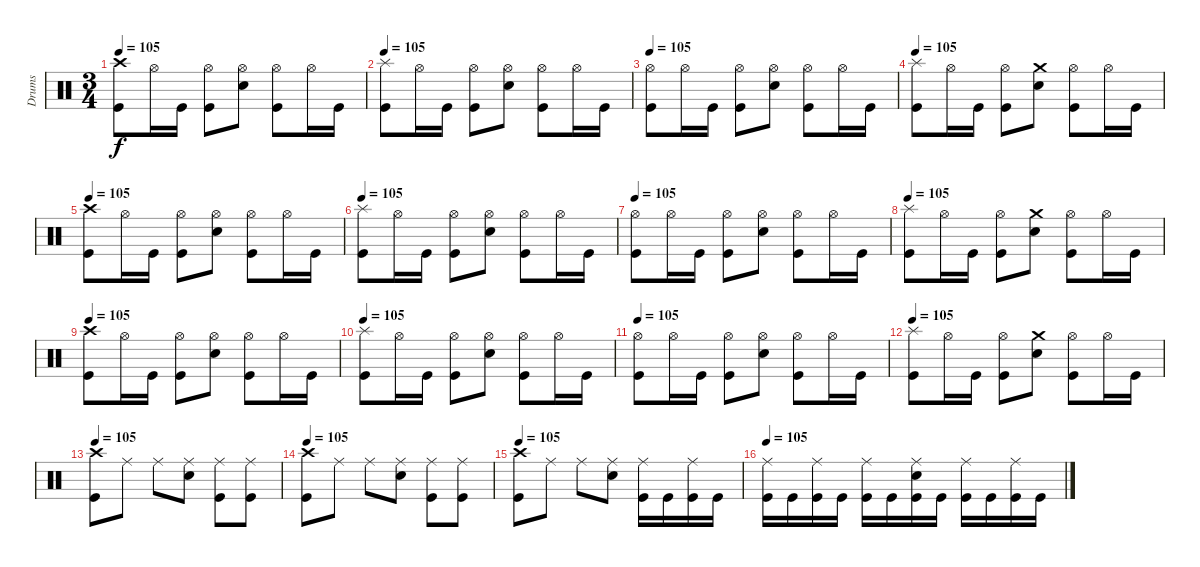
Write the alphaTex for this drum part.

\track ("Drums" "Drums") {instrument percussion}
\staff {score}
\articulation defaults
\ts (3 4)
\tempo 105
\clef neutral
\ks c
("Crash high (hit)" "Kick (hit)").8{dy f} "Hi-Hat (open)".16 "Kick (hit)".16 ("Hi-Hat (open)" "Kick (hit)").8 ("Hi-Hat (open)" "Electric Snare (hit)").8 ("Hi-Hat (open)" "Kick (hit)").8 "Hi-Hat (open)".16 "Kick (hit)".16 |
\tempo 105
("Splash (hit)" "Kick (hit)").8 "Hi-Hat (open)".16 "Kick (hit)".16 ("Hi-Hat (open)" "Kick (hit)").8 ("Hi-Hat (open)" "Electric Snare (hit)").8 ("Hi-Hat (open)" "Kick (hit)").8 "Hi-Hat (open)".16 "Kick (hit)".16 |
\tempo 105
("Hi-Hat (open)" "Kick (hit)").8 "Hi-Hat (open)".16 "Kick (hit)".16 ("Hi-Hat (open)" "Kick (hit)").8 ("Hi-Hat (open)" "Electric Snare (hit)").8 ("Hi-Hat (open)" "Kick (hit)").8 "Hi-Hat (open)".16 "Kick (hit)".16 |
\tempo 105
("Splash (hit)" "Kick (hit)").8 "Hi-Hat (open)".16 "Kick (hit)".16 ("Hi-Hat (open)" "Kick (hit)").8 ("Crash medium (hit)" "Electric Snare (hit)").8 ("Hi-Hat (open)" "Kick (hit)").8 "Hi-Hat (open)".16 "Kick (hit)".16 |
\tempo 105
("Crash high (hit)" "Kick (hit)").8 "Hi-Hat (open)".16 "Kick (hit)".16 ("Hi-Hat (open)" "Kick (hit)").8 ("Hi-Hat (open)" "Electric Snare (hit)").8 ("Hi-Hat (open)" "Kick (hit)").8 "Hi-Hat (open)".16 "Kick (hit)".16 |
\tempo 105
("Splash (hit)" "Kick (hit)").8 "Hi-Hat (open)".16 "Kick (hit)".16 ("Hi-Hat (open)" "Kick (hit)").8 ("Hi-Hat (open)" "Electric Snare (hit)").8 ("Hi-Hat (open)" "Kick (hit)").8 "Hi-Hat (open)".16 "Kick (hit)".16 |
\tempo 105
("Hi-Hat (open)" "Kick (hit)").8 "Hi-Hat (open)".16 "Kick (hit)".16 ("Hi-Hat (open)" "Kick (hit)").8 ("Hi-Hat (open)" "Electric Snare (hit)").8 ("Hi-Hat (open)" "Kick (hit)").8 "Hi-Hat (open)".16 "Kick (hit)".16 |
\tempo 105
("Splash (hit)" "Kick (hit)").8 "Hi-Hat (open)".16 "Kick (hit)".16 ("Hi-Hat (open)" "Kick (hit)").8 ("Crash medium (hit)" "Electric Snare (hit)").8 ("Hi-Hat (open)" "Kick (hit)").8 "Hi-Hat (open)".16 "Kick (hit)".16 |
\tempo 105
("Crash high (hit)" "Kick (hit)").8 "Hi-Hat (open)".16 "Kick (hit)".16 ("Hi-Hat (open)" "Kick (hit)").8 ("Hi-Hat (open)" "Electric Snare (hit)").8 ("Hi-Hat (open)" "Kick (hit)").8 "Hi-Hat (open)".16 "Kick (hit)".16 |
\tempo 105
("Splash (hit)" "Kick (hit)").8 "Hi-Hat (open)".16 "Kick (hit)".16 ("Hi-Hat (open)" "Kick (hit)").8 ("Hi-Hat (open)" "Electric Snare (hit)").8 ("Hi-Hat (open)" "Kick (hit)").8 "Hi-Hat (open)".16 "Kick (hit)".16 |
\tempo 105
("Hi-Hat (open)" "Kick (hit)").8 "Hi-Hat (open)".16 "Kick (hit)".16 ("Hi-Hat (open)" "Kick (hit)").8 ("Hi-Hat (open)" "Electric Snare (hit)").8 ("Hi-Hat (open)" "Kick (hit)").8 "Hi-Hat (open)".16 "Kick (hit)".16 |
\tempo 105
("Splash (hit)" "Kick (hit)").8 "Hi-Hat (open)".16 "Kick (hit)".16 ("Hi-Hat (open)" "Kick (hit)").8 ("Crash medium (hit)" "Electric Snare (hit)").8 ("Hi-Hat (open)" "Kick (hit)").8 "Hi-Hat (open)".16 "Kick (hit)".16 |
\tempo 105
("Crash high (hit)" "Kick (hit)").8 "Ride (middle)".8 "Ride (middle)".8 ("Ride (middle)" "Electric Snare (hit)").8 ("Ride (middle)" "Kick (hit)").8 ("Ride (middle)" "Kick (hit)").8 |
\tempo 105
("Crash high (hit)" "Kick (hit)").8 "Ride (middle)".8 "Ride (middle)".8 ("Ride (middle)" "Electric Snare (hit)").8 ("Ride (middle)" "Kick (hit)").8 ("Ride (middle)" "Kick (hit)").8 |
\tempo 105
("Crash high (hit)" "Kick (hit)").8 "Ride (middle)".8 "Ride (middle)".8 ("Ride (middle)" "Electric Snare (hit)").8 ("Ride (middle)" "Kick (hit)").16 "Kick (hit)".16 ("Ride (middle)" "Kick (hit)").16 "Kick (hit)".16 |
\tempo 105
("Ride (middle)" "Kick (hit)").16 "Kick (hit)".16 ("Ride (middle)" "Kick (hit)").16 "Kick (hit)".16 ("Ride (middle)" "Kick (hit)").16 "Kick (hit)".16 ("Ride (middle)" "Electric Snare (hit)" "Kick (hit)").16 "Kick (hit)".16 ("Ride (middle)" "Kick (hit)").16 "Kick (hit)".16 ("Ride (middle)" "Kick (hit)").16 "Kick (hit)".16
